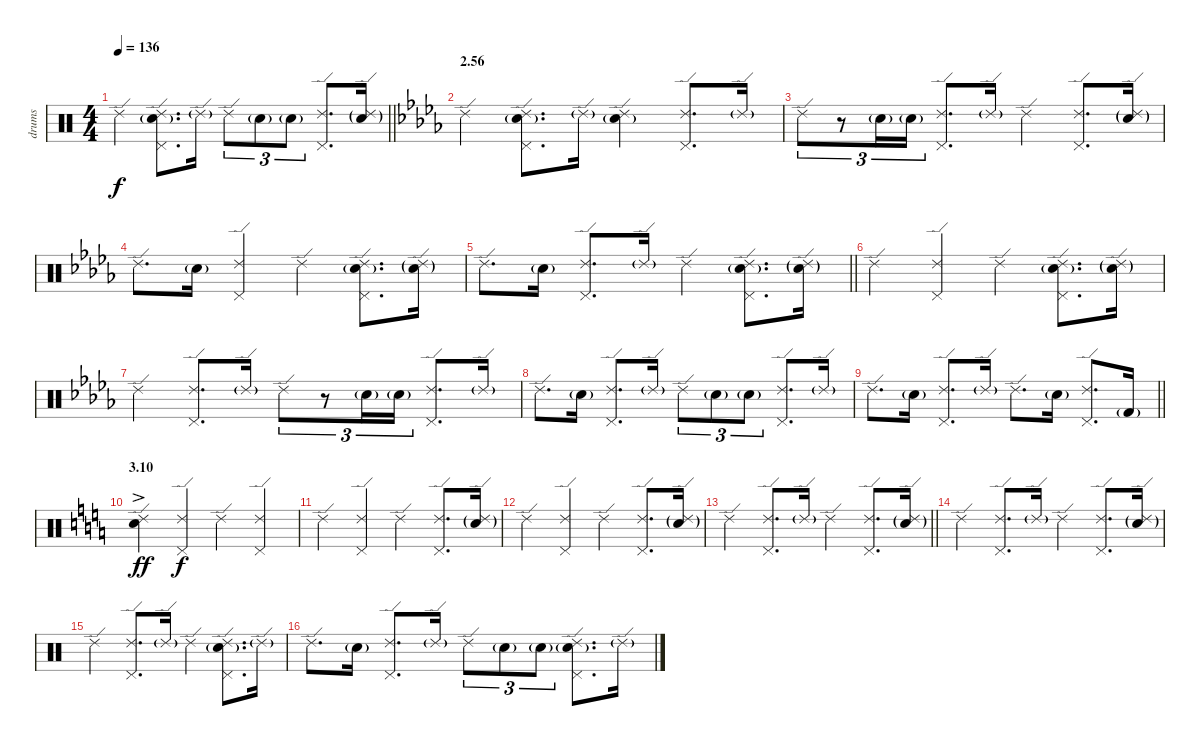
\track ("drums" "drums") {instrument percussion}
\staff {score}
\articulation defaults
\ts (4 4)
\tempo 136
\clef neutral
\barLineRight lightlight
\ks c "Ride (edge) 2".4{dy f}
("Ride (edge) 2" "Pedal Hi-Hat (hit)" "Electric Snare (hit)"{g}).8{d} "Ride (edge) 2"{g}.16 "Ride (edge) 2".8{tu (3 2)} "Electric Snare (hit)"{g}.8{tu (3 2)} "Electric Snare (hit)"{g}.8{tu (3 2)} ("Ride (edge) 2" "Pedal Hi-Hat (hit)").8{d} ("Ride (edge) 2"{g} "Electric Snare (hit)"{g}).16 |
\section ("" "2.56")
\ks db "Ride (edge) 2".4
("Ride (edge) 2" "Pedal Hi-Hat (hit)" "Electric Snare (hit)"{g}).8{d} "Ride (edge) 2"{g}.16 ("Ride (edge) 2" "Electric Snare (hit)"{g}).4 ("Ride (edge) 2" "Pedal Hi-Hat (hit)").8{d} "Ride (edge) 2"{g}.16 |
"Ride (edge) 2".8{tu (3 2)} r.8{tu (3 2)} "Electric Snare (hit)"{g}.16{tu (3 2)} "Electric Snare (hit)"{g}.16{tu (3 2)} ("Ride (edge) 2" "Pedal Hi-Hat (hit)").8{d} "Ride (edge) 2"{g}.16 "Ride (edge) 2".4 ("Ride (edge) 2" "Pedal Hi-Hat (hit)").8{d} ("Ride (edge) 2"{g} "Electric Snare (hit)"{g}).16 |
"Ride (edge) 2".8{d} "Electric Snare (hit)"{g}.16 ("Ride (edge) 2" "Pedal Hi-Hat (hit)").4 "Ride (edge) 2".4 ("Ride (edge) 2" "Pedal Hi-Hat (hit)" "Electric Snare (hit)"{g}).8{d} ("Ride (edge) 2"{g} "Electric Snare (hit)"{g}).16 |
\barLineRight lightlight "Ride (edge) 2".8{d} "Electric Snare (hit)"{g}.16
("Ride (edge) 2" "Pedal Hi-Hat (hit)").8{d} "Ride (edge) 2"{g}.16 "Ride (edge) 2".4 ("Ride (edge) 2" "Pedal Hi-Hat (hit)" "Electric Snare (hit)"{g}).8{d} ("Ride (edge) 2"{g} "Electric Snare (hit)"{g}).16 |
"Ride (edge) 2".4 ("Ride (edge) 2" "Pedal Hi-Hat (hit)").4 "Ride (edge) 2".4 ("Ride (edge) 2" "Pedal Hi-Hat (hit)" "Electric Snare (hit)"{g}).8{d} ("Ride (edge) 2"{g} "Electric Snare (hit)"{g}).16 |
"Ride (edge) 2".4 ("Ride (edge) 2" "Pedal Hi-Hat (hit)").8{d} "Ride (edge) 2"{g}.16 "Ride (edge) 2".8{tu (3 2)} r.8{tu (3 2)} "Electric Snare (hit)"{g}.16{tu (3 2)} "Electric Snare (hit)"{g}.16{tu (3 2)} ("Ride (edge) 2" "Pedal Hi-Hat (hit)").8{d} "Ride (edge) 2"{g}.16 |
"Ride (edge) 2".8{d} "Electric Snare (hit)"{g}.16 ("Ride (edge) 2" "Pedal Hi-Hat (hit)").8{d} "Ride (edge) 2"{g}.16 "Ride (edge) 2".8{tu (3 2)} "Electric Snare (hit)"{g}.8{tu (3 2)} "Electric Snare (hit)"{g}.8{tu (3 2)} ("Ride (edge) 2" "Pedal Hi-Hat (hit)").8{d} "Ride (edge) 2"{g}.16 |
\barLineRight lightlight "Ride (edge) 2".8{d} "Electric Snare (hit)"{g}.16
("Ride (edge) 2" "Pedal Hi-Hat (hit)").8{d} "Ride (edge) 2"{g}.16 "Ride (edge) 2".8{d} "Electric Snare (hit)"{g}.16 ("Ride (edge) 2" "Pedal Hi-Hat (hit)").8{d} "Kick (hit) 2"{g}.16 |
\section ("" "3.10")
\ks c
("Ride (edge) 2" "Electric Snare (hit)"{ac}).4{dy ff} ("Ride (edge) 2" "Pedal Hi-Hat (hit)").4{dy f} "Ride (edge) 2".4 ("Ride (edge) 2" "Pedal Hi-Hat (hit)").4 |
"Ride (edge) 2".4 ("Ride (edge) 2" "Pedal Hi-Hat (hit)").4 "Ride (edge) 2".4 ("Ride (edge) 2" "Pedal Hi-Hat (hit)").8{d} ("Ride (edge) 2"{g} "Electric Snare (hit)"{g}).16 |
"Ride (edge) 2".4 ("Ride (edge) 2" "Pedal Hi-Hat (hit)").4 "Ride (edge) 2".4 ("Ride (edge) 2" "Pedal Hi-Hat (hit)").8{d} ("Ride (edge) 2"{g} "Electric Snare (hit)"{g}).16 |
\barLineRight lightlight "Ride (edge) 2".4
("Ride (edge) 2" "Pedal Hi-Hat (hit)").8{d} "Ride (edge) 2"{g}.16 "Ride (edge) 2".4 ("Ride (edge) 2" "Pedal Hi-Hat (hit)").8{d} ("Ride (edge) 2"{g} "Electric Snare (hit)"{g}).16 |
"Ride (edge) 2".4 ("Ride (edge) 2" "Pedal Hi-Hat (hit)").8{d} "Ride (edge) 2"{g}.16 "Ride (edge) 2".4 ("Ride (edge) 2" "Pedal Hi-Hat (hit)").8{d} ("Ride (edge) 2"{g} "Electric Snare (hit)"{g}).16 |
"Ride (edge) 2".4 ("Ride (edge) 2" "Pedal Hi-Hat (hit)").8{d} "Ride (edge) 2"{g}.16 "Ride (edge) 2".4 ("Ride (edge) 2" "Pedal Hi-Hat (hit)" "Electric Snare (hit)"{g}).8{d} "Ride (edge) 2"{g}.16 |
"Ride (edge) 2".8{d} "Electric Snare (hit)"{g}.16 ("Ride (edge) 2" "Pedal Hi-Hat (hit)").8{d} "Ride (edge) 2"{g}.16 "Ride (edge) 2".8{tu (3 2)} "Electric Snare (hit)"{g}.8{tu (3 2)} "Electric Snare (hit)"{g}.8{tu (3 2)} ("Ride (edge) 2" "Pedal Hi-Hat (hit)" "Electric Snare (hit)"{g}).8{d} "Ride (edge) 2"{g}.16
